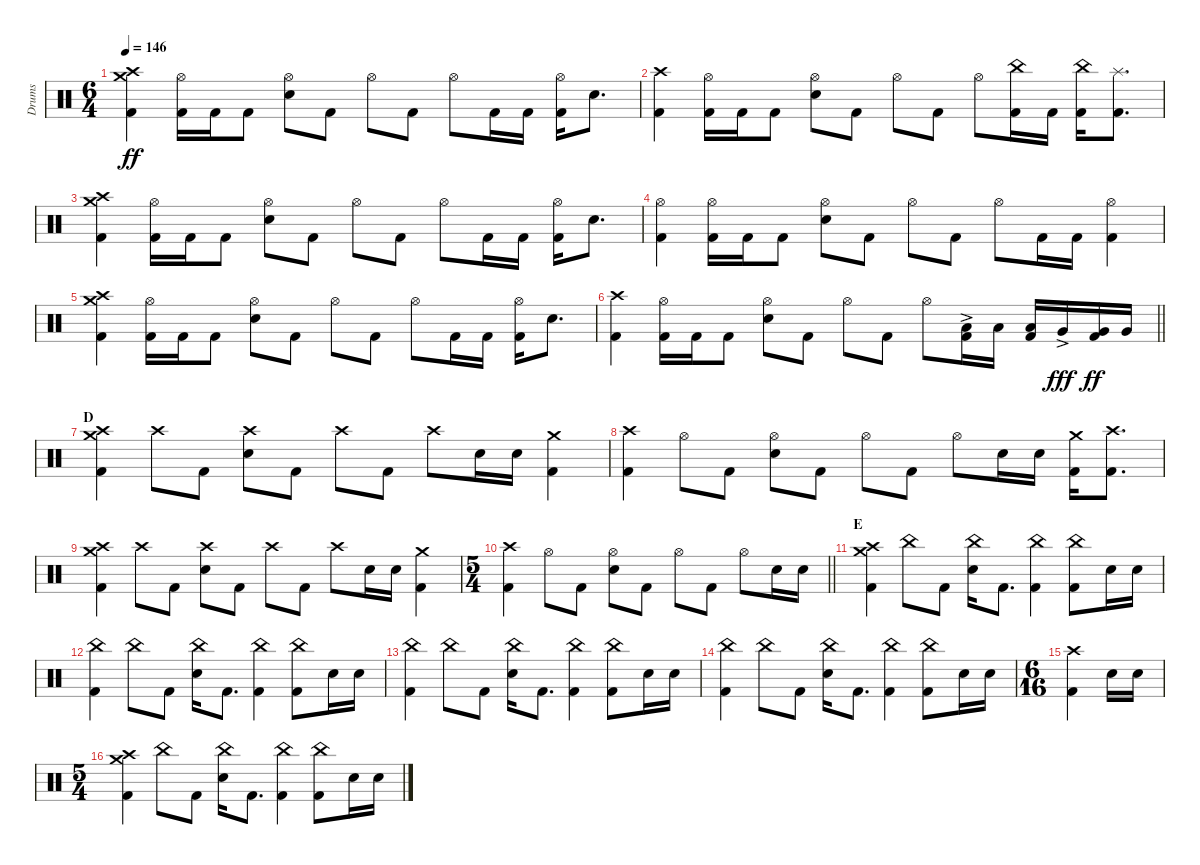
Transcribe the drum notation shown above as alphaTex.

\track ("Drums" "Drums") {instrument percussion}
\staff {score}
\articulation defaults
\ts (6 4)
\tempo 146
\clef neutral
\ks c
("Crash medium (hit)" "Crash high (hit)" "Kick (hit) 2").4{dy ff} ("Hi-Hat (open)" "Kick (hit) 2").16 "Kick (hit) 2".16 "Kick (hit) 2".8 ("Hi-Hat (open)" "Electric Snare (hit)").8 "Kick (hit) 2".8 "Hi-Hat (open)".8 "Kick (hit) 2".8 "Hi-Hat (open)".8 "Kick (hit) 2".16 "Kick (hit) 2".16 ("Hi-Hat (open)" "Kick (hit) 2").16 "Electric Snare (hit)".8{d} |
("Crash high (hit)" "Kick (hit) 2").4 ("Hi-Hat (open)" "Kick (hit) 2").16 "Kick (hit) 2".16 "Kick (hit) 2".8 ("Hi-Hat (open)" "Electric Snare (hit)").8 "Kick (hit) 2".8 "Hi-Hat (open)".8 "Kick (hit) 2".8 "Hi-Hat (open)".8 ("China (hit)" "Kick (hit) 2").16 "Kick (hit) 2".16 ("China (hit)" "Kick (hit) 2").16 ("Splash (hit)" "Kick (hit) 2").8{d} |
("Crash medium (hit)" "Crash high (hit)" "Kick (hit) 2").4 ("Hi-Hat (open)" "Kick (hit) 2").16 "Kick (hit) 2".16 "Kick (hit) 2".8 ("Hi-Hat (open)" "Electric Snare (hit)").8 "Kick (hit) 2".8 "Hi-Hat (open)".8 "Kick (hit) 2".8 "Hi-Hat (open)".8 "Kick (hit) 2".16 "Kick (hit) 2".16 ("Hi-Hat (open)" "Kick (hit) 2").16 "Electric Snare (hit)".8{d} |
("Hi-Hat (open)" "Kick (hit) 2").4 ("Hi-Hat (open)" "Kick (hit) 2").16 "Kick (hit) 2".16 "Kick (hit) 2".8 ("Hi-Hat (open)" "Electric Snare (hit)").8 "Kick (hit) 2".8 "Hi-Hat (open)".8 "Kick (hit) 2".8 "Hi-Hat (open)".8 "Kick (hit) 2".16 "Kick (hit) 2".16 ("Hi-Hat (open)" "Kick (hit) 2").4 |
("Crash medium (hit)" "Crash high (hit)" "Kick (hit) 2").4 ("Hi-Hat (open)" "Kick (hit) 2").16 "Kick (hit) 2".16 "Kick (hit) 2".8 ("Hi-Hat (open)" "Electric Snare (hit)").8 "Kick (hit) 2".8 "Hi-Hat (open)".8 "Kick (hit) 2".8 "Hi-Hat (open)".8 "Kick (hit) 2".16 "Kick (hit) 2".16 ("Hi-Hat (open)" "Kick (hit) 2").16 "Electric Snare (hit)".8{d} |
\barLineRight lightlight
("Crash high (hit)" "Kick (hit) 2").4 ("Hi-Hat (open)" "Kick (hit) 2").16 "Kick (hit) 2".16 "Kick (hit) 2".8 ("Hi-Hat (open)" "Electric Snare (hit)").8 "Kick (hit) 2".8 "Hi-Hat (open)".8 "Kick (hit) 2".8 "Hi-Hat (open)".8 ("Low Tom (hit)"{ac} "Kick (hit) 2").16 "Low Tom (hit)".16 ("Low Tom (hit)" "Kick (hit) 2").16 "Very Low Tom (hit)"{ac}.16{dy fff} ("Very Low Tom (hit)" "Kick (hit) 2").16{dy ff} "Very Low Tom (hit)".16 |
\section ("" "D")
("Crash medium (hit)" "Crash high (hit)" "Kick (hit) 2").4 "Crash high (hit)".8 "Kick (hit) 2".8 ("Crash high (hit)" "Electric Snare (hit)").8 "Kick (hit) 2".8 "Crash high (hit)".8 "Kick (hit) 2".8 "Crash high (hit)".8 "Electric Snare (hit)".16 "Electric Snare (hit)".16 ("Crash medium (hit)" "Kick (hit) 2").4 |
("Crash high (hit)" "Kick (hit) 2").4 "Hi-Hat (open)".8 "Kick (hit) 2".8 ("Hi-Hat (open)" "Electric Snare (hit)").8 "Kick (hit) 2".8 "Hi-Hat (open)".8 "Kick (hit) 2".8 "Hi-Hat (open)".8 "Electric Snare (hit)".16 "Electric Snare (hit)".16 ("Crash medium (hit)" "Kick (hit) 2").16 ("Crash high (hit)" "Kick (hit) 2").8{d} |
("Crash medium (hit)" "Crash high (hit)" "Kick (hit) 2").4 "Crash high (hit)".8 "Kick (hit) 2".8 ("Crash high (hit)" "Electric Snare (hit)").8 "Kick (hit) 2".8 "Crash high (hit)".8 "Kick (hit) 2".8 "Crash high (hit)".8 "Electric Snare (hit)".16 "Electric Snare (hit)".16 ("Crash medium (hit)" "Kick (hit) 2").4 |
\ts (5 4)
\barLineRight lightlight
("Crash high (hit)" "Kick (hit) 2").4 "Hi-Hat (open)".8 "Kick (hit) 2".8 ("Hi-Hat (open)" "Electric Snare (hit)").8 "Kick (hit) 2".8 "Hi-Hat (open)".8 "Kick (hit) 2".8 "Hi-Hat (open)".8 "Electric Snare (hit)".16 "Electric Snare (hit)".16 |
\section ("" "E")
("Crash medium (hit)" "Crash high (hit)" "Kick (hit) 2").4 "China (hit)".8 "Kick (hit) 2".8 ("China (hit)" "Electric Snare (hit)").16 "Kick (hit) 2".8{d} ("China (hit)" "Kick (hit) 2").4 ("China (hit)" "Kick (hit) 2").8 "Electric Snare (hit)".16 "Electric Snare (hit)".16 |
("China (hit)" "Kick (hit) 2").4 "China (hit)".8 "Kick (hit) 2".8 ("China (hit)" "Electric Snare (hit)").16 "Kick (hit) 2".8{d} ("China (hit)" "Kick (hit) 2").4 ("China (hit)" "Kick (hit) 2").8 "Electric Snare (hit)".16 "Electric Snare (hit)".16 |
("China (hit)" "Kick (hit) 2").4 "China (hit)".8 "Kick (hit) 2".8 ("China (hit)" "Electric Snare (hit)").16 "Kick (hit) 2".8{d} ("China (hit)" "Kick (hit) 2").4 ("China (hit)" "Kick (hit) 2").8 "Electric Snare (hit)".16 "Electric Snare (hit)".16 |
("China (hit)" "Kick (hit) 2").4 "China (hit)".8 "Kick (hit) 2".8 ("China (hit)" "Electric Snare (hit)").16 "Kick (hit) 2".8{d} ("China (hit)" "Kick (hit) 2").4 ("China (hit)" "Kick (hit) 2").8 "Electric Snare (hit)".16 "Electric Snare (hit)".16 |
\ts (6 16)
("Crash high (hit)" "Kick (hit) 2").4 "Electric Snare (hit)".16 "Electric Snare (hit)".16 |
\ts (5 4)
("Crash medium (hit)" "Crash high (hit)" "Kick (hit) 2").4 "China (hit)".8 "Kick (hit) 2".8 ("China (hit)" "Electric Snare (hit)").16 "Kick (hit) 2".8{d} ("China (hit)" "Kick (hit) 2").4 ("China (hit)" "Kick (hit) 2").8 "Electric Snare (hit)".16 "Electric Snare (hit)".16
